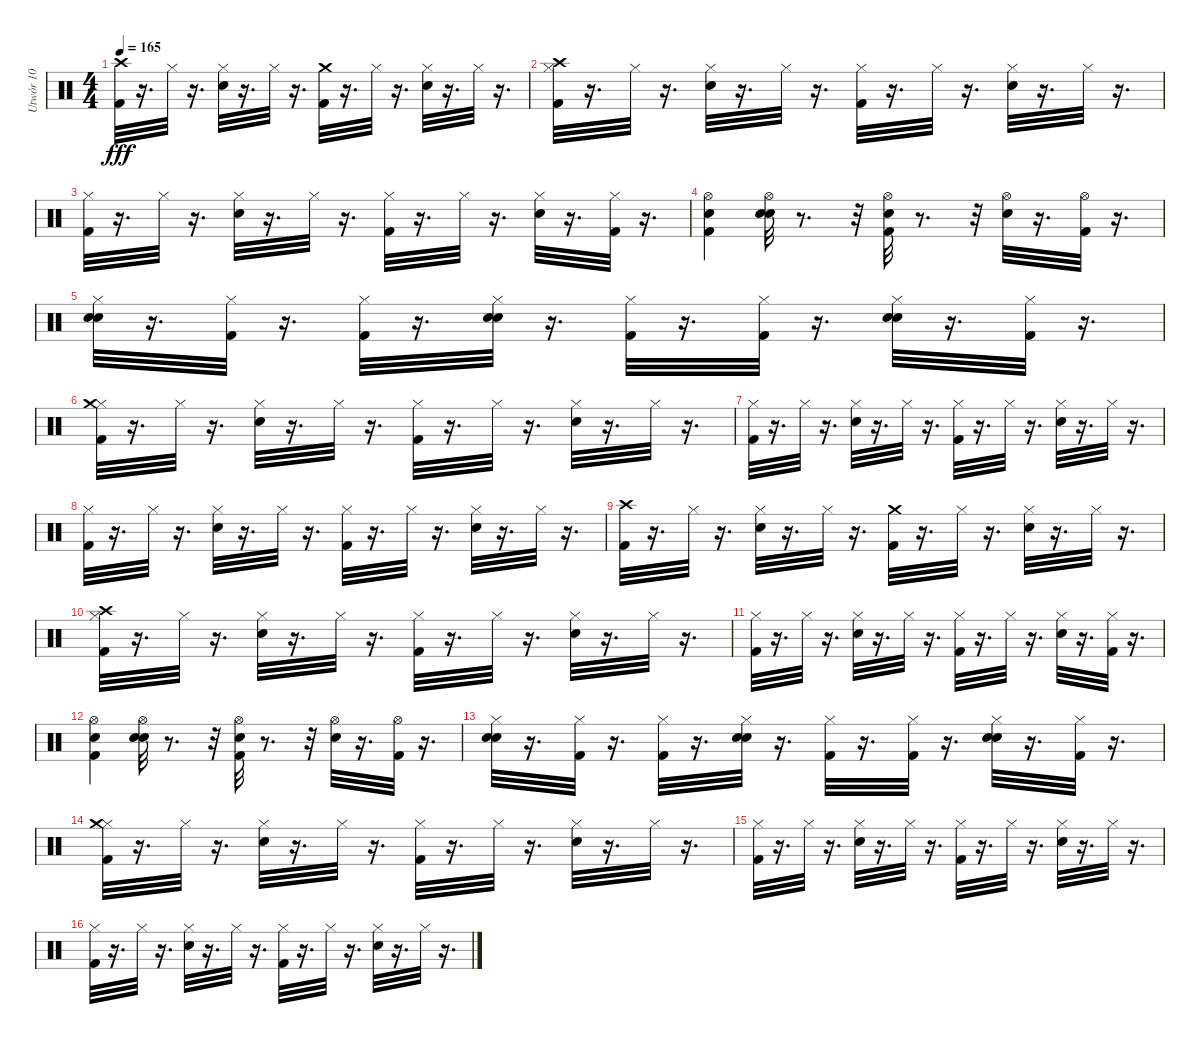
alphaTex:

\track ("Utwór 10" "Utwór 10") {instrument percussion}
\staff {score}
\articulation defaults
\ts (4 4)
\tempo 165
\clef neutral
\ks c
("Crash high (hit)" "Kick (hit) 2").32{dy fff} r.16{d} "Hi-Hat (closed)".32 r.16{d} ("Hi-Hat (closed)" "Electric Snare (hit)").32 r.16{d} "Hi-Hat (closed)".32 r.16{d} ("Crash medium (hit)" "Kick (hit) 2").32 r.16{d} "Hi-Hat (closed)".32 r.16{d} ("Hi-Hat (closed)" "Electric Snare (hit)").32 r.16{d} "Hi-Hat (closed)".32 r.16{d} |
("Crash high (hit)" "Hi-Hat (closed)" "Kick (hit) 2").32 r.16{d} "Hi-Hat (closed)".32 r.16{d} ("Hi-Hat (closed)" "Electric Snare (hit)").32 r.16{d} "Hi-Hat (closed)".32 r.16{d} ("Hi-Hat (closed)" "Kick (hit) 2").32 r.16{d} "Hi-Hat (closed)".32 r.16{d} ("Hi-Hat (closed)" "Electric Snare (hit)").32 r.16{d} "Hi-Hat (closed)".32 r.16{d} |
("Hi-Hat (closed)" "Kick (hit) 2").32 r.16{d} "Hi-Hat (closed)".32 r.16{d} ("Hi-Hat (closed)" "Electric Snare (hit)").32 r.16{d} "Hi-Hat (closed)".32 r.16{d} ("Hi-Hat (closed)" "Kick (hit) 2").32 r.16{d} "Hi-Hat (closed)".32 r.16{d} ("Hi-Hat (closed)" "Electric Snare (hit)").32 r.16{d} ("Kick (hit) 2" "Hi-Hat (closed)").32 r.16{d} |
("Electric Snare (hit)" "Hi-Hat (open)" "Kick (hit) 2").4 ("Electric Snare (hit)" "Hi-Hat (open)" "Electric Snare (hit)").32 r.8{d} r.32 ("Electric Snare (hit)" "Hi-Hat (open)" "Kick (hit) 2").32 r.8{d} r.32 ("Hi-Hat (open)" "Electric Snare (hit)").32 r.16{d} ("Kick (hit) 2" "Hi-Hat (open)").32 r.16{d} |
("Electric Snare (hit)" "Hi-Hat (closed)" "Electric Snare (hit)").32 r.16{d} ("Kick (hit) 2" "Hi-Hat (closed)").32 r.16{d} ("Hi-Hat (closed)" "Kick (hit) 2").32 r.16{d} ("Electric Snare (hit)" "Electric Snare (hit)" "Hi-Hat (closed)").32 r.16{d} ("Hi-Hat (closed)" "Kick (hit) 2").32 r.16{d} ("Hi-Hat (closed)" "Kick (hit) 2").32 r.16{d} ("Electric Snare (hit)" "Hi-Hat (closed)" "Electric Snare (hit)").32 r.16{d} ("Kick (hit) 2" "Hi-Hat (closed)").32 r.16{d} |
("Kick (hit) 2" "Hi-Hat (closed)" "Crash medium (hit)").32 r.16{d} "Hi-Hat (closed)".32 r.16{d} ("Hi-Hat (closed)" "Electric Snare (hit)").32 r.16{d} "Hi-Hat (closed)".32 r.16{d} ("Hi-Hat (closed)" "Kick (hit) 2").32 r.16{d} "Hi-Hat (closed)".32 r.16{d} ("Hi-Hat (closed)" "Electric Snare (hit)").32 r.16{d} "Hi-Hat (closed)".32 r.16{d} |
("Hi-Hat (closed)" "Kick (hit) 2").32 r.16{d} "Hi-Hat (closed)".32 r.16{d} ("Hi-Hat (closed)" "Electric Snare (hit)").32 r.16{d} "Hi-Hat (closed)".32 r.16{d} ("Hi-Hat (closed)" "Kick (hit) 2").32 r.16{d} "Hi-Hat (closed)".32 r.16{d} ("Hi-Hat (closed)" "Electric Snare (hit)").32 r.16{d} "Hi-Hat (closed)".32 r.16{d} |
("Hi-Hat (closed)" "Kick (hit) 2").32 r.16{d} "Hi-Hat (closed)".32 r.16{d} ("Hi-Hat (closed)" "Electric Snare (hit)").32 r.16{d} "Hi-Hat (closed)".32 r.16{d} ("Hi-Hat (closed)" "Kick (hit) 2").32 r.16{d} "Hi-Hat (closed)".32 r.16{d} ("Hi-Hat (closed)" "Electric Snare (hit)").32 r.16{d} "Hi-Hat (closed)".32 r.16{d} |
("Crash high (hit)" "Kick (hit) 2").32 r.16{d} "Hi-Hat (closed)".32 r.16{d} ("Hi-Hat (closed)" "Electric Snare (hit)").32 r.16{d} "Hi-Hat (closed)".32 r.16{d} ("Crash medium (hit)" "Kick (hit) 2").32 r.16{d} "Hi-Hat (closed)".32 r.16{d} ("Hi-Hat (closed)" "Electric Snare (hit)").32 r.16{d} "Hi-Hat (closed)".32 r.16{d} |
("Crash high (hit)" "Hi-Hat (closed)" "Kick (hit) 2").32 r.16{d} "Hi-Hat (closed)".32 r.16{d} ("Hi-Hat (closed)" "Electric Snare (hit)").32 r.16{d} "Hi-Hat (closed)".32 r.16{d} ("Hi-Hat (closed)" "Kick (hit) 2").32 r.16{d} "Hi-Hat (closed)".32 r.16{d} ("Hi-Hat (closed)" "Electric Snare (hit)").32 r.16{d} "Hi-Hat (closed)".32 r.16{d} |
("Hi-Hat (closed)" "Kick (hit) 2").32 r.16{d} "Hi-Hat (closed)".32 r.16{d} ("Hi-Hat (closed)" "Electric Snare (hit)").32 r.16{d} "Hi-Hat (closed)".32 r.16{d} ("Hi-Hat (closed)" "Kick (hit) 2").32 r.16{d} "Hi-Hat (closed)".32 r.16{d} ("Hi-Hat (closed)" "Electric Snare (hit)").32 r.16{d} ("Kick (hit) 2" "Hi-Hat (closed)").32 r.16{d} |
("Electric Snare (hit)" "Hi-Hat (open)" "Kick (hit) 2").4 ("Electric Snare (hit)" "Hi-Hat (open)" "Electric Snare (hit)").32 r.8{d} r.32 ("Electric Snare (hit)" "Hi-Hat (open)" "Kick (hit) 2").32 r.8{d} r.32 ("Hi-Hat (open)" "Electric Snare (hit)").32 r.16{d} ("Kick (hit) 2" "Hi-Hat (open)").32 r.16{d} |
("Electric Snare (hit)" "Hi-Hat (closed)" "Electric Snare (hit)").32 r.16{d} ("Kick (hit) 2" "Hi-Hat (closed)").32 r.16{d} ("Hi-Hat (closed)" "Kick (hit) 2").32 r.16{d} ("Electric Snare (hit)" "Electric Snare (hit)" "Hi-Hat (closed)").32 r.16{d} ("Hi-Hat (closed)" "Kick (hit) 2").32 r.16{d} ("Hi-Hat (closed)" "Kick (hit) 2").32 r.16{d} ("Electric Snare (hit)" "Hi-Hat (closed)" "Electric Snare (hit)").32 r.16{d} ("Kick (hit) 2" "Hi-Hat (closed)").32 r.16{d} |
("Kick (hit) 2" "Hi-Hat (closed)" "Crash medium (hit)").32 r.16{d} "Hi-Hat (closed)".32 r.16{d} ("Hi-Hat (closed)" "Electric Snare (hit)").32 r.16{d} "Hi-Hat (closed)".32 r.16{d} ("Hi-Hat (closed)" "Kick (hit) 2").32 r.16{d} "Hi-Hat (closed)".32 r.16{d} ("Hi-Hat (closed)" "Electric Snare (hit)").32 r.16{d} "Hi-Hat (closed)".32 r.16{d} |
("Hi-Hat (closed)" "Kick (hit) 2").32 r.16{d} "Hi-Hat (closed)".32 r.16{d} ("Hi-Hat (closed)" "Electric Snare (hit)").32 r.16{d} "Hi-Hat (closed)".32 r.16{d} ("Hi-Hat (closed)" "Kick (hit) 2").32 r.16{d} "Hi-Hat (closed)".32 r.16{d} ("Hi-Hat (closed)" "Electric Snare (hit)").32 r.16{d} "Hi-Hat (closed)".32 r.16{d} |
("Hi-Hat (closed)" "Kick (hit) 2").32 r.16{d} "Hi-Hat (closed)".32 r.16{d} ("Hi-Hat (closed)" "Electric Snare (hit)").32 r.16{d} "Hi-Hat (closed)".32 r.16{d} ("Hi-Hat (closed)" "Kick (hit) 2").32 r.16{d} "Hi-Hat (closed)".32 r.16{d} ("Hi-Hat (closed)" "Electric Snare (hit)").32 r.16{d} "Hi-Hat (closed)".32 r.16{d}
